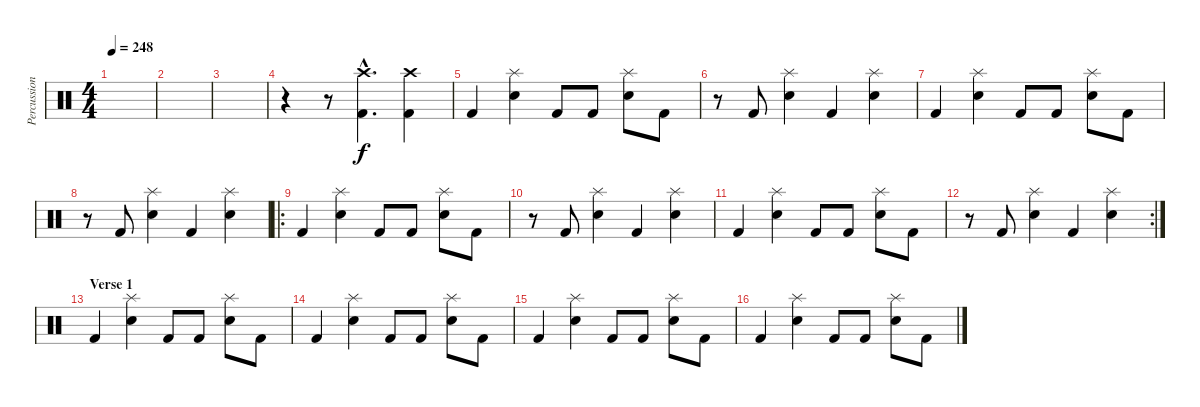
\track ("Percussion" "Percussion") {instrument percussion}
\staff {score}
\articulation defaults
\ts (4 4)
\tempo 248
\clef neutral
\ks c
|
|
|
r.4 r.8 ("Crash high (hit)"{hac} "Kick (hit) 2"{hac}).4{d} ("Crash high (hit)" "Kick (hit) 2").4 |
"Kick (hit) 2".4 ("Splash (hit)" "Snare (hit) 2").4 "Kick (hit) 2".8 "Kick (hit) 2".8 ("Splash (hit)" "Snare (hit) 2").8 "Kick (hit) 2".8 |
r.8 "Kick (hit) 2".8 ("Splash (hit)" "Snare (hit) 2").4 "Kick (hit) 2".4 ("Splash (hit)" "Snare (hit) 2").4 |
"Kick (hit) 2".4 ("Splash (hit)" "Snare (hit) 2").4 "Kick (hit) 2".8 "Kick (hit) 2".8 ("Splash (hit)" "Snare (hit) 2").8 "Kick (hit) 2".8 |
r.8 "Kick (hit) 2".8 ("Splash (hit)" "Snare (hit) 2").4 "Kick (hit) 2".4 ("Splash (hit)" "Snare (hit) 2").4 |
\ro "Kick (hit) 2".4
("Splash (hit)" "Snare (hit) 2").4 "Kick (hit) 2".8 "Kick (hit) 2".8 ("Splash (hit)" "Snare (hit) 2").8 "Kick (hit) 2".8 |
r.8 "Kick (hit) 2".8 ("Splash (hit)" "Snare (hit) 2").4 "Kick (hit) 2".4 ("Splash (hit)" "Snare (hit) 2").4 |
"Kick (hit) 2".4 ("Splash (hit)" "Snare (hit) 2").4 "Kick (hit) 2".8 "Kick (hit) 2".8 ("Splash (hit)" "Snare (hit) 2").8 "Kick (hit) 2".8 |
\rc 2
r.8 "Kick (hit) 2".8 ("Splash (hit)" "Snare (hit) 2").4 "Kick (hit) 2".4 ("Splash (hit)" "Snare (hit) 2").4 |
\section ("" "Verse 1")
"Kick (hit) 2".4 ("Splash (hit)" "Snare (hit) 2").4 "Kick (hit) 2".8 "Kick (hit) 2".8 ("Splash (hit)" "Snare (hit) 2").8 "Kick (hit) 2".8 |
"Kick (hit) 2".4 ("Splash (hit)" "Snare (hit) 2").4 "Kick (hit) 2".8 "Kick (hit) 2".8 ("Splash (hit)" "Snare (hit) 2").8 "Kick (hit) 2".8 |
"Kick (hit) 2".4 ("Splash (hit)" "Snare (hit) 2").4 "Kick (hit) 2".8 "Kick (hit) 2".8 ("Splash (hit)" "Snare (hit) 2").8 "Kick (hit) 2".8 |
"Kick (hit) 2".4 ("Splash (hit)" "Snare (hit) 2").4 "Kick (hit) 2".8 "Kick (hit) 2".8 ("Splash (hit)" "Snare (hit) 2").8 "Kick (hit) 2".8
